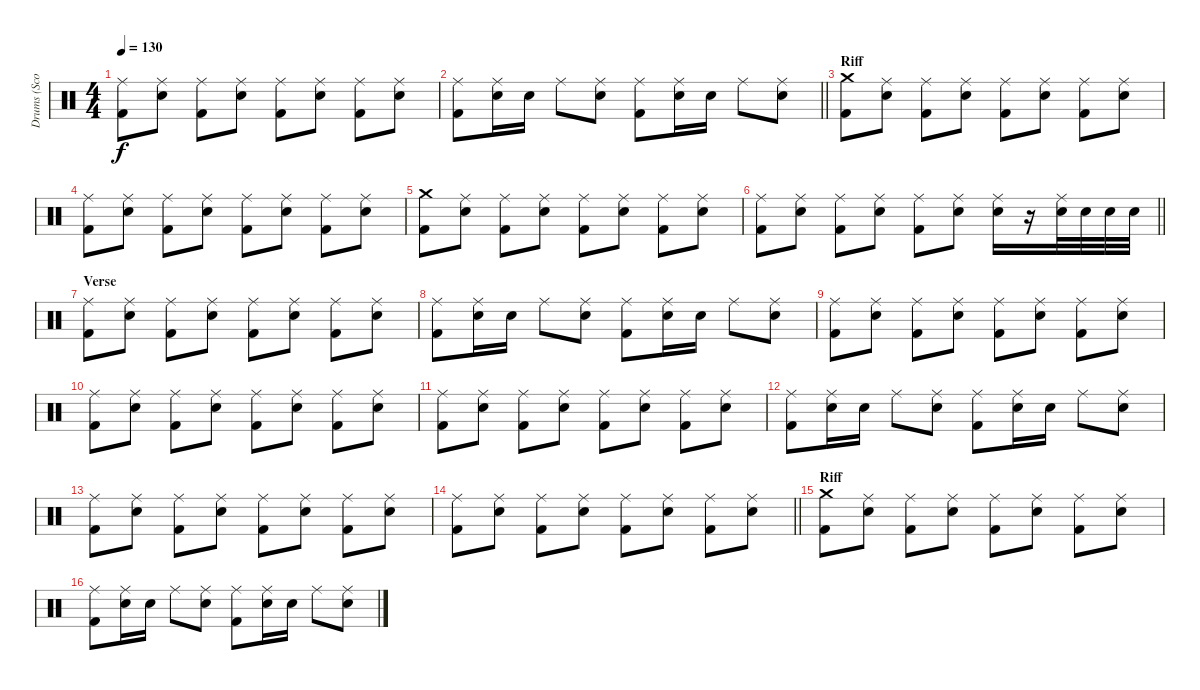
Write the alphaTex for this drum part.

\track ("Drums (Scott Raynor)" "Drums (Sco") {instrument percussion}
\staff {score}
\articulation defaults
\ts (4 4)
\tempo 130
\clef neutral
\ks c
("Ride (middle)" "Kick (hit) 2").8{dy f} ("Ride (middle)" "Snare (hit) 2").8 ("Ride (middle)" "Kick (hit) 2").8 ("Ride (middle)" "Snare (hit) 2").8 ("Ride (middle)" "Kick (hit) 2").8 ("Ride (middle)" "Snare (hit) 2").8 ("Ride (middle)" "Kick (hit) 2").8 ("Ride (middle)" "Snare (hit) 2").8 |
\barLineRight lightlight
("Ride (middle)" "Kick (hit) 2").8 ("Ride (middle)" "Snare (hit) 2").16 "Snare (hit) 2".16 "Ride (middle)".8 ("Ride (middle)" "Snare (hit) 2").8 ("Ride (middle)" "Kick (hit) 2").8 ("Ride (middle)" "Snare (hit) 2").16 "Snare (hit) 2".16 "Ride (middle)".8 ("Ride (middle)" "Snare (hit) 2").8 |
\section ("" "Riff")
("Crash medium (hit)" "Kick (hit) 2").8 ("Ride (middle)" "Snare (hit) 2").8 ("Ride (middle)" "Kick (hit) 2").8 ("Ride (middle)" "Snare (hit) 2").8 ("Ride (middle)" "Kick (hit) 2").8 ("Ride (middle)" "Snare (hit) 2").8 ("Ride (middle)" "Kick (hit) 2").8 ("Ride (middle)" "Snare (hit) 2").8 |
("Ride (middle)" "Kick (hit) 2").8 ("Ride (middle)" "Snare (hit) 2").8 ("Ride (middle)" "Kick (hit) 2").8 ("Ride (middle)" "Snare (hit) 2").8 ("Ride (middle)" "Kick (hit) 2").8 ("Ride (middle)" "Snare (hit) 2").8 ("Ride (middle)" "Kick (hit) 2").8 ("Ride (middle)" "Snare (hit) 2").8 |
("Crash medium (hit)" "Kick (hit) 2").8 ("Ride (middle)" "Snare (hit) 2").8 ("Ride (middle)" "Kick (hit) 2").8 ("Ride (middle)" "Snare (hit) 2").8 ("Ride (middle)" "Kick (hit) 2").8 ("Ride (middle)" "Snare (hit) 2").8 ("Ride (middle)" "Kick (hit) 2").8 ("Ride (middle)" "Snare (hit) 2").8 |
\barLineRight lightlight
("Ride (middle)" "Kick (hit) 2").8 ("Ride (middle)" "Snare (hit) 2").8 ("Ride (middle)" "Kick (hit) 2").8 ("Ride (middle)" "Snare (hit) 2").8 ("Ride (middle)" "Kick (hit) 2").8 ("Ride (middle)" "Snare (hit) 2").8 ("Ride (middle)" "Snare (hit) 2").16 r.16 ("Ride (middle)" "Snare (hit) 2").32 "Snare (hit) 2".32 "Snare (hit) 2".32 "Snare (hit) 2".32 |
\section ("" "Verse")
("Ride (middle)" "Kick (hit) 2").8 ("Ride (middle)" "Snare (hit) 2").8 ("Ride (middle)" "Kick (hit) 2").8 ("Ride (middle)" "Snare (hit) 2").8 ("Ride (middle)" "Kick (hit) 2").8 ("Ride (middle)" "Snare (hit) 2").8 ("Ride (middle)" "Kick (hit) 2").8 ("Ride (middle)" "Snare (hit) 2").8 |
("Ride (middle)" "Kick (hit) 2").8 ("Ride (middle)" "Snare (hit) 2").16 "Snare (hit) 2".16 "Ride (middle)".8 ("Ride (middle)" "Snare (hit) 2").8 ("Ride (middle)" "Kick (hit) 2").8 ("Ride (middle)" "Snare (hit) 2").16 "Snare (hit) 2".16 "Ride (middle)".8 ("Ride (middle)" "Snare (hit) 2").8 |
("Ride (middle)" "Kick (hit) 2").8 ("Ride (middle)" "Snare (hit) 2").8 ("Ride (middle)" "Kick (hit) 2").8 ("Ride (middle)" "Snare (hit) 2").8 ("Ride (middle)" "Kick (hit) 2").8 ("Ride (middle)" "Snare (hit) 2").8 ("Ride (middle)" "Kick (hit) 2").8 ("Ride (middle)" "Snare (hit) 2").8 |
("Ride (middle)" "Kick (hit) 2").8 ("Ride (middle)" "Snare (hit) 2").8 ("Ride (middle)" "Kick (hit) 2").8 ("Ride (middle)" "Snare (hit) 2").8 ("Ride (middle)" "Kick (hit) 2").8 ("Ride (middle)" "Snare (hit) 2").8 ("Ride (middle)" "Kick (hit) 2").8 ("Ride (middle)" "Snare (hit) 2").8 |
("Ride (middle)" "Kick (hit) 2").8 ("Ride (middle)" "Snare (hit) 2").8 ("Ride (middle)" "Kick (hit) 2").8 ("Ride (middle)" "Snare (hit) 2").8 ("Ride (middle)" "Kick (hit) 2").8 ("Ride (middle)" "Snare (hit) 2").8 ("Ride (middle)" "Kick (hit) 2").8 ("Ride (middle)" "Snare (hit) 2").8 |
("Ride (middle)" "Kick (hit) 2").8 ("Ride (middle)" "Snare (hit) 2").16 "Snare (hit) 2".16 "Ride (middle)".8 ("Ride (middle)" "Snare (hit) 2").8 ("Ride (middle)" "Kick (hit) 2").8 ("Ride (middle)" "Snare (hit) 2").16 "Snare (hit) 2".16 "Ride (middle)".8 ("Ride (middle)" "Snare (hit) 2").8 |
("Ride (middle)" "Kick (hit) 2").8 ("Ride (middle)" "Snare (hit) 2").8 ("Ride (middle)" "Kick (hit) 2").8 ("Ride (middle)" "Snare (hit) 2").8 ("Ride (middle)" "Kick (hit) 2").8 ("Ride (middle)" "Snare (hit) 2").8 ("Ride (middle)" "Kick (hit) 2").8 ("Ride (middle)" "Snare (hit) 2").8 |
\barLineRight lightlight
("Ride (middle)" "Kick (hit) 2").8 ("Ride (middle)" "Snare (hit) 2").8 ("Ride (middle)" "Kick (hit) 2").8 ("Ride (middle)" "Snare (hit) 2").8 ("Ride (middle)" "Kick (hit) 2").8 ("Ride (middle)" "Snare (hit) 2").8 ("Ride (middle)" "Kick (hit) 2").8 ("Ride (middle)" "Snare (hit) 2").8 |
\section ("" "Riff")
("Crash medium (hit)" "Kick (hit) 2").8 ("Ride (middle)" "Snare (hit) 2").8 ("Ride (middle)" "Kick (hit) 2").8 ("Ride (middle)" "Snare (hit) 2").8 ("Ride (middle)" "Kick (hit) 2").8 ("Ride (middle)" "Snare (hit) 2").8 ("Ride (middle)" "Kick (hit) 2").8 ("Ride (middle)" "Snare (hit) 2").8 |
("Ride (middle)" "Kick (hit) 2").8 ("Ride (middle)" "Snare (hit) 2").16 "Snare (hit) 2".16 "Ride (middle)".8 ("Ride (middle)" "Snare (hit) 2").8 ("Ride (middle)" "Kick (hit) 2").8 ("Ride (middle)" "Snare (hit) 2").16 "Snare (hit) 2".16 "Ride (middle)".8 ("Ride (middle)" "Snare (hit) 2").8
